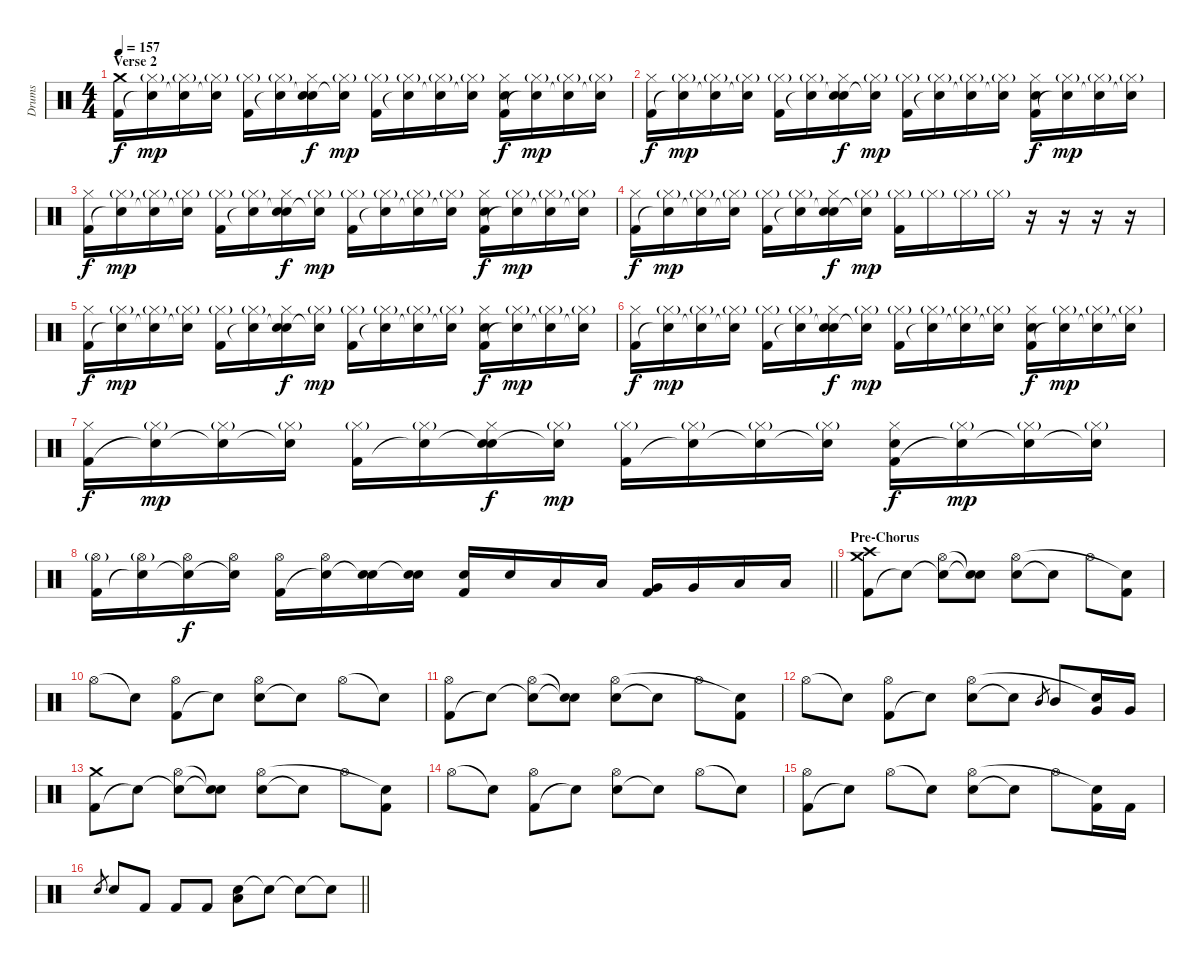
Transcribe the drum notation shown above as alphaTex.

\track ("Drums" "Drums") {instrument percussion}
\staff {score}
\articulation defaults
\ts (4 4)
\section ("" "Verse 2")
\tempo 157
\clef neutral
\ks c
("Kick (hit) 2" "Crash medium (hit)").16{dy f} ("Snare (hit)"{t} "Hi-Hat (closed)"{g}).16{dy mp} ("Snare (hit)"{t} "Hi-Hat (closed)"{g}).16 ("Snare (hit)"{t} "Hi-Hat (closed)"{g}).16 ("Kick (hit) 2" "Hi-Hat (closed)"{g}).16 ("Snare (hit)"{t} "Hi-Hat (closed)"{g}).16 ("Snare (hit)"{t} "Electric Snare (hit)" "Hi-Hat (closed)").16{dy f} ("Snare (hit)"{t} "Hi-Hat (closed)"{g}).16{dy mp} ("Kick (hit) 2" "Hi-Hat (closed)"{g}).16 ("Snare (hit)"{t} "Hi-Hat (closed)"{g}).16 ("Snare (hit)"{t} "Hi-Hat (closed)"{g}).16 ("Snare (hit)"{t} "Hi-Hat (closed)"{g}).16 ("Kick (hit) 2" "Electric Snare (hit)" "Hi-Hat (closed)").16{dy f} ("Snare (hit)"{t} "Hi-Hat (closed)"{g}).16{dy mp} ("Snare (hit)"{t} "Hi-Hat (closed)"{g}).16 ("Snare (hit)"{t} "Hi-Hat (closed)"{g}).16 |
("Kick (hit) 2" "Hi-Hat (closed)").16{dy f} ("Snare (hit)"{t} "Hi-Hat (closed)"{g}).16{dy mp} ("Snare (hit)"{t} "Hi-Hat (closed)"{g}).16 ("Snare (hit)"{t} "Hi-Hat (closed)"{g}).16 ("Kick (hit) 2" "Hi-Hat (closed)"{g}).16 ("Snare (hit)"{t} "Hi-Hat (closed)"{g}).16 ("Snare (hit)"{t} "Electric Snare (hit)" "Hi-Hat (closed)").16{dy f} ("Snare (hit)"{t} "Hi-Hat (closed)"{g}).16{dy mp} ("Kick (hit) 2" "Hi-Hat (closed)"{g}).16 ("Snare (hit)"{t} "Hi-Hat (closed)"{g}).16 ("Snare (hit)"{t} "Hi-Hat (closed)"{g}).16 ("Snare (hit)"{t} "Hi-Hat (closed)"{g}).16 ("Kick (hit) 2" "Electric Snare (hit)" "Hi-Hat (closed)").16{dy f} ("Snare (hit)"{t} "Hi-Hat (closed)"{g}).16{dy mp} ("Snare (hit)"{t} "Hi-Hat (closed)"{g}).16 ("Snare (hit)"{t} "Hi-Hat (closed)"{g}).16 |
("Kick (hit) 2" "Hi-Hat (closed)").16{dy f} ("Snare (hit)"{t} "Hi-Hat (closed)"{g}).16{dy mp} ("Snare (hit)"{t} "Hi-Hat (closed)"{g}).16 ("Snare (hit)"{t} "Hi-Hat (closed)"{g}).16 ("Kick (hit) 2" "Hi-Hat (closed)"{g}).16 ("Snare (hit)"{t} "Hi-Hat (closed)"{g}).16 ("Snare (hit)"{t} "Electric Snare (hit)" "Hi-Hat (closed)").16{dy f} ("Snare (hit)"{t} "Hi-Hat (closed)"{g}).16{dy mp} ("Kick (hit) 2" "Hi-Hat (closed)"{g}).16 ("Snare (hit)"{t} "Hi-Hat (closed)"{g}).16 ("Snare (hit)"{t} "Hi-Hat (closed)"{g}).16 ("Snare (hit)"{t} "Hi-Hat (closed)"{g}).16 ("Kick (hit) 2" "Electric Snare (hit)" "Hi-Hat (closed)").16{dy f} ("Snare (hit)"{t} "Hi-Hat (closed)"{g}).16{dy mp} ("Snare (hit)"{t} "Hi-Hat (closed)"{g}).16 ("Snare (hit)"{t} "Hi-Hat (closed)"{g}).16 |
("Kick (hit) 2" "Hi-Hat (closed)").16{dy f} ("Snare (hit)"{t} "Hi-Hat (closed)"{g}).16{dy mp} ("Snare (hit)"{t} "Hi-Hat (closed)"{g}).16 ("Snare (hit)"{t} "Hi-Hat (closed)"{g}).16 ("Kick (hit) 2" "Hi-Hat (closed)"{g}).16 ("Snare (hit)"{t} "Hi-Hat (closed)"{g}).16 ("Snare (hit)"{t} "Electric Snare (hit)" "Hi-Hat (closed)").16{dy f} ("Snare (hit)"{t} "Hi-Hat (closed)"{g}).16{dy mp} ("Kick (hit) 2" "Hi-Hat (closed)"{g}).16 "Hi-Hat (closed)"{g}.16 "Hi-Hat (closed)"{g}.16 "Hi-Hat (closed)"{g}.16 r.16 r.16 r.16 r.16 |
("Kick (hit) 2" "Hi-Hat (closed)").16{dy f} ("Snare (hit)"{t} "Hi-Hat (closed)"{g}).16{dy mp} ("Snare (hit)"{t} "Hi-Hat (closed)"{g}).16 ("Snare (hit)"{t} "Hi-Hat (closed)"{g}).16 ("Kick (hit) 2" "Hi-Hat (closed)"{g}).16 ("Snare (hit)"{t} "Hi-Hat (closed)"{g}).16 ("Snare (hit)"{t} "Electric Snare (hit)" "Hi-Hat (closed)").16{dy f} ("Snare (hit)"{t} "Hi-Hat (closed)"{g}).16{dy mp} ("Kick (hit) 2" "Hi-Hat (closed)"{g}).16 ("Snare (hit)"{t} "Hi-Hat (closed)"{g}).16 ("Snare (hit)"{t} "Hi-Hat (closed)"{g}).16 ("Snare (hit)"{t} "Hi-Hat (closed)"{g}).16 ("Kick (hit) 2" "Electric Snare (hit)" "Hi-Hat (closed)").16{dy f} ("Snare (hit)"{t} "Hi-Hat (closed)"{g}).16{dy mp} ("Snare (hit)"{t} "Hi-Hat (closed)"{g}).16 ("Snare (hit)"{t} "Hi-Hat (closed)"{g}).16 |
("Kick (hit) 2" "Hi-Hat (closed)").16{dy f} ("Snare (hit)"{t} "Hi-Hat (closed)"{g}).16{dy mp} ("Snare (hit)"{t} "Hi-Hat (closed)"{g}).16 ("Snare (hit)"{t} "Hi-Hat (closed)"{g}).16 ("Kick (hit) 2" "Hi-Hat (closed)"{g}).16 ("Snare (hit)"{t} "Hi-Hat (closed)"{g}).16 ("Snare (hit)"{t} "Electric Snare (hit)" "Hi-Hat (closed)").16{dy f} ("Snare (hit)"{t} "Hi-Hat (closed)"{g}).16{dy mp} ("Kick (hit) 2" "Hi-Hat (closed)"{g}).16 ("Snare (hit)"{t} "Hi-Hat (closed)"{g}).16 ("Snare (hit)"{t} "Hi-Hat (closed)"{g}).16 ("Snare (hit)"{t} "Hi-Hat (closed)"{g}).16 ("Kick (hit) 2" "Electric Snare (hit)" "Hi-Hat (closed)").16{dy f} ("Snare (hit)"{t} "Hi-Hat (closed)"{g}).16{dy mp} ("Snare (hit)"{t} "Hi-Hat (closed)"{g}).16 ("Snare (hit)"{t} "Hi-Hat (closed)"{g}).16 |
("Kick (hit) 2" "Hi-Hat (closed)").16{dy f} ("Snare (hit)"{t} "Hi-Hat (closed)"{g}).16{dy mp} ("Snare (hit)"{t} "Hi-Hat (closed)"{g}).16 ("Snare (hit)"{t} "Hi-Hat (closed)"{g}).16 ("Kick (hit) 2" "Hi-Hat (closed)"{g}).16 ("Snare (hit)"{t} "Hi-Hat (closed)"{g}).16 ("Snare (hit)"{t} "Electric Snare (hit)" "Hi-Hat (closed)").16{dy f} ("Snare (hit)"{t} "Hi-Hat (closed)"{g}).16{dy mp} ("Kick (hit) 2" "Hi-Hat (closed)"{g}).16 ("Snare (hit)"{t} "Hi-Hat (closed)"{g}).16 ("Snare (hit)"{t} "Hi-Hat (closed)"{g}).16 ("Snare (hit)"{t} "Hi-Hat (closed)"{g}).16 ("Kick (hit) 2" "Electric Snare (hit)" "Hi-Hat (closed)").16{dy f} ("Snare (hit)"{t} "Hi-Hat (closed)"{g}).16{dy mp} ("Snare (hit)"{t} "Hi-Hat (closed)"{g}).16 ("Snare (hit)"{t} "Hi-Hat (closed)"{g}).16 |
\barLineRight lightlight
("Kick (hit) 2" "Hi-Hat (open)"{g}).16 ("Snare (hit)"{t} "Hi-Hat (open)"{g}).16 ("Snare (hit)"{t} "Hi-Hat (open)").16{dy f} ("Snare (hit)"{t} "Hi-Hat (open)").16 ("Kick (hit) 2" "Hi-Hat (open)").16 ("Snare (hit)"{t} "Hi-Hat (open)").16 ("Snare (hit)"{t} "Electric Snare (hit)").16 ("Snare (hit)"{t} "Electric Snare (hit)").16 ("Kick (hit) 2" "Electric Snare (hit)").16 "Electric Snare (hit)".16 "Low Tom (hit)".16 "Low Tom (hit)".16 ("Kick (hit) 2" "Very Low Tom (hit)").16 "Very Low Tom (hit)".16 "Low Floor Tom (hit)".16 "Low Floor Tom (hit)".16 |
\section ("" "Pre-Chorus")
("Kick (hit) 2" "Crash medium (hit)" "Crash high (hit)").8 "Snare (hit)"{t}.8 ("Snare (hit)"{t} "Hi-Hat (open)").8 ("Snare (hit)"{t} "Snare (hit)"{t}).8 ("Electric Snare (hit)" "Hi-Hat (open)").8 "Snare (hit)"{t}.8 "Hi-Hat (open)".8 ("Kick (hit) 2" "Snare (hit)"{t}).8 |
"Hi-Hat (open)".8 "Snare (hit)"{t}.8 ("Kick (hit) 2" "Hi-Hat (open)").8 "Snare (hit)"{t}.8 ("Electric Snare (hit)" "Hi-Hat (open)").8 "Snare (hit)"{t}.8 "Hi-Hat (open)".8 "Snare (hit)"{t}.8 |
("Kick (hit) 2" "Hi-Hat (open)").8 "Snare (hit)"{t}.8 ("Snare (hit)"{t} "Hi-Hat (open)").8 ("Snare (hit)"{t} "Snare (hit)"{t}).8 ("Electric Snare (hit)" "Hi-Hat (open)").8 "Snare (hit)"{t}.8 "Hi-Hat (open)".8 ("Kick (hit) 2" "Snare (hit)"{t}).8 |
"Hi-Hat (open)".8 "Snare (hit)"{t}.8 ("Kick (hit) 2" "Hi-Hat (open)").8 "Snare (hit)"{t}.8 ("Electric Snare (hit)" "Hi-Hat (open)").8 "Snare (hit)"{t}.8 "Mid Tom (hit)".8{gr} "Mid Tom (hit)".8 ("Very Low Tom (hit)" "Snare (hit)"{t}).16 "Very Low Tom (hit)".16 |
("Kick (hit) 2" "Crash medium (hit)").8 "Snare (hit)"{t}.8 ("Snare (hit)"{t} "Hi-Hat (open)").8 ("Snare (hit)"{t} "Snare (hit)"{t}).8 ("Electric Snare (hit)" "Hi-Hat (open)").8 "Snare (hit)"{t}.8 "Hi-Hat (open)".8 ("Kick (hit) 2" "Snare (hit)"{t}).8 |
"Hi-Hat (open)".8 "Snare (hit)"{t}.8 ("Kick (hit) 2" "Hi-Hat (open)").8 "Snare (hit)"{t}.8 ("Electric Snare (hit)" "Hi-Hat (open)").8 "Snare (hit)"{t}.8 "Hi-Hat (open)".8 "Snare (hit)"{t}.8 |
("Kick (hit) 2" "Hi-Hat (open)").8 "Snare (hit)"{t}.8 "Hi-Hat (open)".8 "Snare (hit)"{t}.8 ("Electric Snare (hit)" "Hi-Hat (open)").8 "Snare (hit)"{t}.8 "Hi-Hat (open)".8 ("Kick (hit) 2" "Snare (hit)"{t}).16 "Kick (hit) 2".16 |
\barLineRight lightlight "Electric Snare (hit)".8{gr} "Electric Snare (hit)".8 "Kick (hit) 2".8 "Kick (hit) 2".8 "Kick (hit) 2".8
("Electric Snare (hit)" "Low Floor Tom (hit)").8 "Electric Snare (hit)"{t}.8 "Snare (hit)"{t}.8 "Snare (hit)"{t}.8
